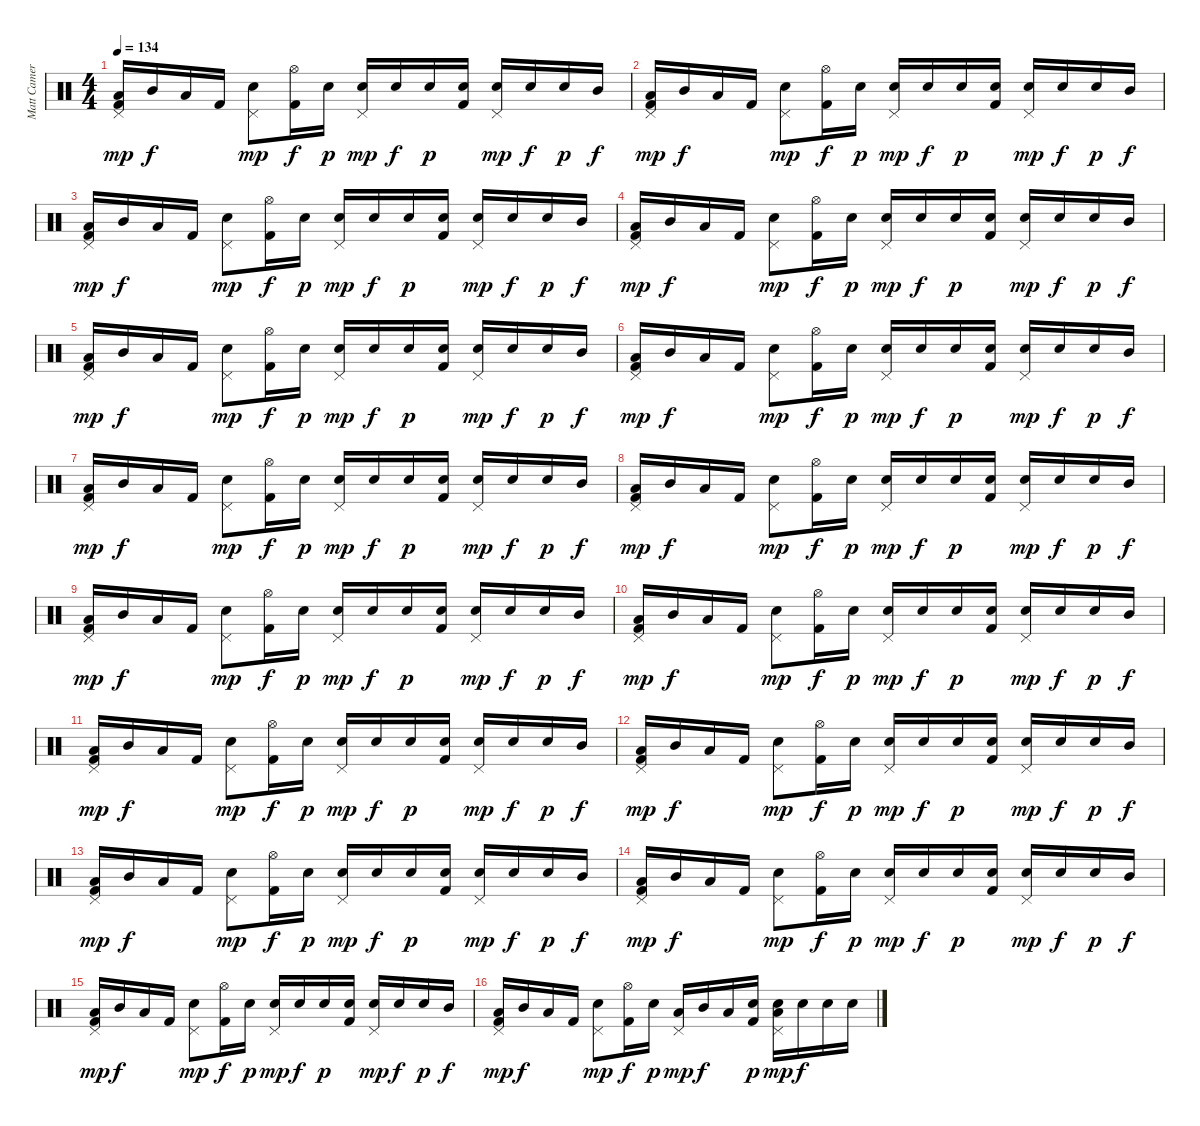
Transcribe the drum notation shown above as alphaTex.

\track ("Matt Cameron" "Matt Camer") {instrument percussion}
\staff {score}
\articulation defaults
\ts (4 4)
\tempo 134
\clef neutral
\ks c
("Low Tom (hit)" "Pedal Hi-Hat (hit)" "Kick (hit) 2").16{dy mp} "Mid Tom (hit)".16{dy f} "Low Tom (hit)".16 "Kick (hit) 2".16 ("Electric Snare (hit)" "Pedal Hi-Hat (hit)").8{dy mp} ("Hi-Hat (open)" "Kick (hit) 2").16{dy f} "Electric Snare (hit)".16{dy p} ("Electric Snare (hit)" "Pedal Hi-Hat (hit)").16{dy mp} "Electric Snare (hit)".16{dy f} "Electric Snare (hit)".16{dy p} ("Electric Snare (hit)" "Kick (hit) 2").16 ("Electric Snare (hit)" "Pedal Hi-Hat (hit)").16{dy mp} "Electric Snare (hit)".16{dy f} "Electric Snare (hit)".16{dy p} "Mid Tom (hit)".16{dy f} |
("Low Tom (hit)" "Pedal Hi-Hat (hit)" "Kick (hit) 2").16{dy mp} "Mid Tom (hit)".16{dy f} "Low Tom (hit)".16 "Kick (hit) 2".16 ("Electric Snare (hit)" "Pedal Hi-Hat (hit)").8{dy mp} ("Hi-Hat (open)" "Kick (hit) 2").16{dy f} "Electric Snare (hit)".16{dy p} ("Electric Snare (hit)" "Pedal Hi-Hat (hit)").16{dy mp} "Electric Snare (hit)".16{dy f} "Electric Snare (hit)".16{dy p} ("Electric Snare (hit)" "Kick (hit) 2").16 ("Electric Snare (hit)" "Pedal Hi-Hat (hit)").16{dy mp} "Electric Snare (hit)".16{dy f} "Electric Snare (hit)".16{dy p} "Mid Tom (hit)".16{dy f} |
("Low Tom (hit)" "Pedal Hi-Hat (hit)" "Kick (hit) 2").16{dy mp} "Mid Tom (hit)".16{dy f} "Low Tom (hit)".16 "Kick (hit) 2".16 ("Electric Snare (hit)" "Pedal Hi-Hat (hit)").8{dy mp} ("Hi-Hat (open)" "Kick (hit) 2").16{dy f} "Electric Snare (hit)".16{dy p} ("Electric Snare (hit)" "Pedal Hi-Hat (hit)").16{dy mp} "Electric Snare (hit)".16{dy f} "Electric Snare (hit)".16{dy p} ("Electric Snare (hit)" "Kick (hit) 2").16 ("Electric Snare (hit)" "Pedal Hi-Hat (hit)").16{dy mp} "Electric Snare (hit)".16{dy f} "Electric Snare (hit)".16{dy p} "Mid Tom (hit)".16{dy f} |
("Low Tom (hit)" "Pedal Hi-Hat (hit)" "Kick (hit) 2").16{dy mp} "Mid Tom (hit)".16{dy f} "Low Tom (hit)".16 "Kick (hit) 2".16 ("Electric Snare (hit)" "Pedal Hi-Hat (hit)").8{dy mp} ("Hi-Hat (open)" "Kick (hit) 2").16{dy f} "Electric Snare (hit)".16{dy p} ("Electric Snare (hit)" "Pedal Hi-Hat (hit)").16{dy mp} "Electric Snare (hit)".16{dy f} "Electric Snare (hit)".16{dy p} ("Electric Snare (hit)" "Kick (hit) 2").16 ("Electric Snare (hit)" "Pedal Hi-Hat (hit)").16{dy mp} "Electric Snare (hit)".16{dy f} "Electric Snare (hit)".16{dy p} "Mid Tom (hit)".16{dy f} |
("Low Tom (hit)" "Pedal Hi-Hat (hit)" "Kick (hit) 2").16{dy mp} "Mid Tom (hit)".16{dy f} "Low Tom (hit)".16 "Kick (hit) 2".16 ("Electric Snare (hit)" "Pedal Hi-Hat (hit)").8{dy mp} ("Hi-Hat (open)" "Kick (hit) 2").16{dy f} "Electric Snare (hit)".16{dy p} ("Electric Snare (hit)" "Pedal Hi-Hat (hit)").16{dy mp} "Electric Snare (hit)".16{dy f} "Electric Snare (hit)".16{dy p} ("Electric Snare (hit)" "Kick (hit) 2").16 ("Electric Snare (hit)" "Pedal Hi-Hat (hit)").16{dy mp} "Electric Snare (hit)".16{dy f} "Electric Snare (hit)".16{dy p} "Mid Tom (hit)".16{dy f} |
("Low Tom (hit)" "Pedal Hi-Hat (hit)" "Kick (hit) 2").16{dy mp} "Mid Tom (hit)".16{dy f} "Low Tom (hit)".16 "Kick (hit) 2".16 ("Electric Snare (hit)" "Pedal Hi-Hat (hit)").8{dy mp} ("Hi-Hat (open)" "Kick (hit) 2").16{dy f} "Electric Snare (hit)".16{dy p} ("Electric Snare (hit)" "Pedal Hi-Hat (hit)").16{dy mp} "Electric Snare (hit)".16{dy f} "Electric Snare (hit)".16{dy p} ("Electric Snare (hit)" "Kick (hit) 2").16 ("Electric Snare (hit)" "Pedal Hi-Hat (hit)").16{dy mp} "Electric Snare (hit)".16{dy f} "Electric Snare (hit)".16{dy p} "Mid Tom (hit)".16{dy f} |
("Low Tom (hit)" "Pedal Hi-Hat (hit)" "Kick (hit) 2").16{dy mp} "Mid Tom (hit)".16{dy f} "Low Tom (hit)".16 "Kick (hit) 2".16 ("Electric Snare (hit)" "Pedal Hi-Hat (hit)").8{dy mp} ("Hi-Hat (open)" "Kick (hit) 2").16{dy f} "Electric Snare (hit)".16{dy p} ("Electric Snare (hit)" "Pedal Hi-Hat (hit)").16{dy mp} "Electric Snare (hit)".16{dy f} "Electric Snare (hit)".16{dy p} ("Electric Snare (hit)" "Kick (hit) 2").16 ("Electric Snare (hit)" "Pedal Hi-Hat (hit)").16{dy mp} "Electric Snare (hit)".16{dy f} "Electric Snare (hit)".16{dy p} "Mid Tom (hit)".16{dy f} |
("Low Tom (hit)" "Pedal Hi-Hat (hit)" "Kick (hit) 2").16{dy mp} "Mid Tom (hit)".16{dy f} "Low Tom (hit)".16 "Kick (hit) 2".16 ("Electric Snare (hit)" "Pedal Hi-Hat (hit)").8{dy mp} ("Hi-Hat (open)" "Kick (hit) 2").16{dy f} "Electric Snare (hit)".16{dy p} ("Electric Snare (hit)" "Pedal Hi-Hat (hit)").16{dy mp} "Electric Snare (hit)".16{dy f} "Electric Snare (hit)".16{dy p} ("Electric Snare (hit)" "Kick (hit) 2").16 ("Electric Snare (hit)" "Pedal Hi-Hat (hit)").16{dy mp} "Electric Snare (hit)".16{dy f} "Electric Snare (hit)".16{dy p} "Mid Tom (hit)".16{dy f} |
("Low Tom (hit)" "Pedal Hi-Hat (hit)" "Kick (hit) 2").16{dy mp} "Mid Tom (hit)".16{dy f} "Low Tom (hit)".16 "Kick (hit) 2".16 ("Electric Snare (hit)" "Pedal Hi-Hat (hit)").8{dy mp} ("Hi-Hat (open)" "Kick (hit) 2").16{dy f} "Electric Snare (hit)".16{dy p} ("Electric Snare (hit)" "Pedal Hi-Hat (hit)").16{dy mp} "Electric Snare (hit)".16{dy f} "Electric Snare (hit)".16{dy p} ("Electric Snare (hit)" "Kick (hit) 2").16 ("Electric Snare (hit)" "Pedal Hi-Hat (hit)").16{dy mp} "Electric Snare (hit)".16{dy f} "Electric Snare (hit)".16{dy p} "Mid Tom (hit)".16{dy f} |
("Low Tom (hit)" "Pedal Hi-Hat (hit)" "Kick (hit) 2").16{dy mp} "Mid Tom (hit)".16{dy f} "Low Tom (hit)".16 "Kick (hit) 2".16 ("Electric Snare (hit)" "Pedal Hi-Hat (hit)").8{dy mp} ("Hi-Hat (open)" "Kick (hit) 2").16{dy f} "Electric Snare (hit)".16{dy p} ("Electric Snare (hit)" "Pedal Hi-Hat (hit)").16{dy mp} "Electric Snare (hit)".16{dy f} "Electric Snare (hit)".16{dy p} ("Electric Snare (hit)" "Kick (hit) 2").16 ("Electric Snare (hit)" "Pedal Hi-Hat (hit)").16{dy mp} "Electric Snare (hit)".16{dy f} "Electric Snare (hit)".16{dy p} "Mid Tom (hit)".16{dy f} |
("Low Tom (hit)" "Pedal Hi-Hat (hit)" "Kick (hit) 2").16{dy mp} "Mid Tom (hit)".16{dy f} "Low Tom (hit)".16 "Kick (hit) 2".16 ("Electric Snare (hit)" "Pedal Hi-Hat (hit)").8{dy mp} ("Hi-Hat (open)" "Kick (hit) 2").16{dy f} "Electric Snare (hit)".16{dy p} ("Electric Snare (hit)" "Pedal Hi-Hat (hit)").16{dy mp} "Electric Snare (hit)".16{dy f} "Electric Snare (hit)".16{dy p} ("Electric Snare (hit)" "Kick (hit) 2").16 ("Electric Snare (hit)" "Pedal Hi-Hat (hit)").16{dy mp} "Electric Snare (hit)".16{dy f} "Electric Snare (hit)".16{dy p} "Mid Tom (hit)".16{dy f} |
("Low Tom (hit)" "Pedal Hi-Hat (hit)" "Kick (hit) 2").16{dy mp} "Mid Tom (hit)".16{dy f} "Low Tom (hit)".16 "Kick (hit) 2".16 ("Electric Snare (hit)" "Pedal Hi-Hat (hit)").8{dy mp} ("Hi-Hat (open)" "Kick (hit) 2").16{dy f} "Electric Snare (hit)".16{dy p} ("Electric Snare (hit)" "Pedal Hi-Hat (hit)").16{dy mp} "Electric Snare (hit)".16{dy f} "Electric Snare (hit)".16{dy p} ("Electric Snare (hit)" "Kick (hit) 2").16 ("Electric Snare (hit)" "Pedal Hi-Hat (hit)").16{dy mp} "Electric Snare (hit)".16{dy f} "Electric Snare (hit)".16{dy p} "Mid Tom (hit)".16{dy f} |
("Low Tom (hit)" "Pedal Hi-Hat (hit)" "Kick (hit) 2").16{dy mp} "Mid Tom (hit)".16{dy f} "Low Tom (hit)".16 "Kick (hit) 2".16 ("Electric Snare (hit)" "Pedal Hi-Hat (hit)").8{dy mp} ("Hi-Hat (open)" "Kick (hit) 2").16{dy f} "Electric Snare (hit)".16{dy p} ("Electric Snare (hit)" "Pedal Hi-Hat (hit)").16{dy mp} "Electric Snare (hit)".16{dy f} "Electric Snare (hit)".16{dy p} ("Electric Snare (hit)" "Kick (hit) 2").16 ("Electric Snare (hit)" "Pedal Hi-Hat (hit)").16{dy mp} "Electric Snare (hit)".16{dy f} "Electric Snare (hit)".16{dy p} "Mid Tom (hit)".16{dy f} |
("Low Tom (hit)" "Pedal Hi-Hat (hit)" "Kick (hit) 2").16{dy mp} "Mid Tom (hit)".16{dy f} "Low Tom (hit)".16 "Kick (hit) 2".16 ("Electric Snare (hit)" "Pedal Hi-Hat (hit)").8{dy mp} ("Hi-Hat (open)" "Kick (hit) 2").16{dy f} "Electric Snare (hit)".16{dy p} ("Electric Snare (hit)" "Pedal Hi-Hat (hit)").16{dy mp} "Electric Snare (hit)".16{dy f} "Electric Snare (hit)".16{dy p} ("Electric Snare (hit)" "Kick (hit) 2").16 ("Electric Snare (hit)" "Pedal Hi-Hat (hit)").16{dy mp} "Electric Snare (hit)".16{dy f} "Electric Snare (hit)".16{dy p} "Mid Tom (hit)".16{dy f} |
("Low Tom (hit)" "Pedal Hi-Hat (hit)" "Kick (hit) 2").16{dy mp} "Mid Tom (hit)".16{dy f} "Low Tom (hit)".16 "Kick (hit) 2".16 ("Electric Snare (hit)" "Pedal Hi-Hat (hit)").8{dy mp} ("Hi-Hat (open)" "Kick (hit) 2").16{dy f} "Electric Snare (hit)".16{dy p} ("Electric Snare (hit)" "Pedal Hi-Hat (hit)").16{dy mp} "Electric Snare (hit)".16{dy f} "Electric Snare (hit)".16{dy p} ("Electric Snare (hit)" "Kick (hit) 2").16 ("Electric Snare (hit)" "Pedal Hi-Hat (hit)").16{dy mp} "Electric Snare (hit)".16{dy f} "Electric Snare (hit)".16{dy p} "Mid Tom (hit)".16{dy f} |
("Low Tom (hit)" "Pedal Hi-Hat (hit)" "Kick (hit) 2").16{dy mp} "Mid Tom (hit)".16{dy f} "Low Tom (hit)".16 "Kick (hit) 2".16 ("Electric Snare (hit)" "Pedal Hi-Hat (hit)").8{dy mp} ("Hi-Hat (open)" "Kick (hit) 2").16{dy f} "Electric Snare (hit)".16{dy p} ("Low Tom (hit)" "Pedal Hi-Hat (hit)").16{dy mp} "Mid Tom (hit)".16{dy f} "Low Tom (hit)".16 ("Electric Snare (hit)" "Kick (hit) 2").16{dy p} ("Low Tom (hit)" "Electric Snare (hit)" "Pedal Hi-Hat (hit)").16{dy mp} "Electric Snare (hit)".16{dy f} "Electric Snare (hit)".16 "Electric Snare (hit)".16
